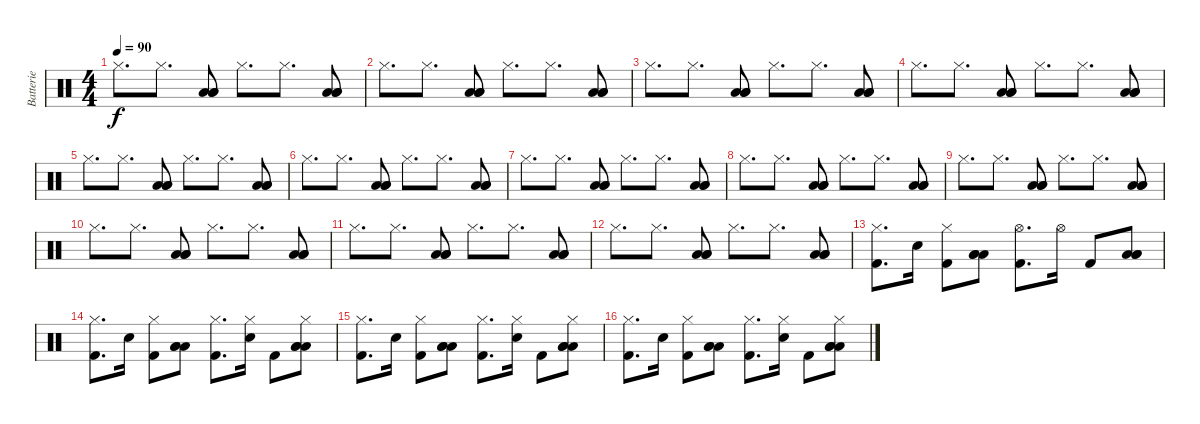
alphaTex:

\track ("Batterie" "Batterie") {instrument percussion}
\staff {score}
\articulation defaults
\ts (4 4)
\tempo 90
\clef neutral
\ks c "Hi-Hat (closed)".8{d dy f} "Hi-Hat (closed)".8{d}
("Low Tom (hit)" "Low Tom (hit)" "Low Tom (hit)").8 "Hi-Hat (closed)".8{d} "Hi-Hat (closed)".8{d} ("Low Tom (hit)" "Low Tom (hit)" "Low Tom (hit)").8 |
"Hi-Hat (closed)".8{d} "Hi-Hat (closed)".8{d} ("Low Tom (hit)" "Low Tom (hit)" "Low Tom (hit)").8 "Hi-Hat (closed)".8{d} "Hi-Hat (closed)".8{d} ("Low Tom (hit)" "Low Tom (hit)" "Low Tom (hit)").8 |
"Hi-Hat (closed)".8{d} "Hi-Hat (closed)".8{d} ("Low Tom (hit)" "Low Tom (hit)" "Low Tom (hit)").8 "Hi-Hat (closed)".8{d} "Hi-Hat (closed)".8{d} ("Low Tom (hit)" "Low Tom (hit)" "Low Tom (hit)").8 |
"Hi-Hat (closed)".8{d} "Hi-Hat (closed)".8{d} ("Low Tom (hit)" "Low Tom (hit)" "Low Tom (hit)").8 "Hi-Hat (closed)".8{d} "Hi-Hat (closed)".8{d} ("Low Tom (hit)" "Low Tom (hit)" "Low Tom (hit)").8 |
"Hi-Hat (closed)".8{d} "Hi-Hat (closed)".8{d} ("Low Tom (hit)" "Low Tom (hit)" "Low Tom (hit)").8 "Hi-Hat (closed)".8{d} "Hi-Hat (closed)".8{d} ("Low Tom (hit)" "Low Tom (hit)" "Low Tom (hit)").8 |
"Hi-Hat (closed)".8{d} "Hi-Hat (closed)".8{d} ("Low Tom (hit)" "Low Tom (hit)" "Low Tom (hit)").8 "Hi-Hat (closed)".8{d} "Hi-Hat (closed)".8{d} ("Low Tom (hit)" "Low Tom (hit)" "Low Tom (hit)").8 |
"Hi-Hat (closed)".8{d} "Hi-Hat (closed)".8{d} ("Low Tom (hit)" "Low Tom (hit)" "Low Tom (hit)").8 "Hi-Hat (closed)".8{d} "Hi-Hat (closed)".8{d} ("Low Tom (hit)" "Low Tom (hit)" "Low Tom (hit)").8 |
"Hi-Hat (closed)".8{d} "Hi-Hat (closed)".8{d} ("Low Tom (hit)" "Low Tom (hit)" "Low Tom (hit)").8 "Hi-Hat (closed)".8{d} "Hi-Hat (closed)".8{d} ("Low Tom (hit)" "Low Tom (hit)" "Low Tom (hit)").8 |
"Hi-Hat (closed)".8{d} "Hi-Hat (closed)".8{d} ("Low Tom (hit)" "Low Tom (hit)" "Low Tom (hit)").8 "Hi-Hat (closed)".8{d} "Hi-Hat (closed)".8{d} ("Low Tom (hit)" "Low Tom (hit)" "Low Tom (hit)").8 |
"Hi-Hat (closed)".8{d} "Hi-Hat (closed)".8{d} ("Low Tom (hit)" "Low Tom (hit)" "Low Tom (hit)").8 "Hi-Hat (closed)".8{d} "Hi-Hat (closed)".8{d} ("Low Tom (hit)" "Low Tom (hit)" "Low Tom (hit)").8 |
"Hi-Hat (closed)".8{d} "Hi-Hat (closed)".8{d} ("Low Tom (hit)" "Low Tom (hit)" "Low Tom (hit)").8 "Hi-Hat (closed)".8{d} "Hi-Hat (closed)".8{d} ("Low Tom (hit)" "Low Tom (hit)" "Low Tom (hit)").8 |
"Hi-Hat (closed)".8{d} "Hi-Hat (closed)".8{d} ("Low Tom (hit)" "Low Tom (hit)" "Low Tom (hit)").8 "Hi-Hat (closed)".8{d} "Hi-Hat (closed)".8{d} ("Low Tom (hit)" "Low Tom (hit)" "Low Tom (hit)").8 |
("Kick (hit) 2" "Hi-Hat (closed)").8{d} "Electric Snare (hit)".16 ("Kick (hit) 2" "Hi-Hat (closed)").8 ("Low Tom (hit)" "Low Tom (hit)" "Low Tom (hit)").8 ("Kick (hit) 2" "Hi-Hat (open)").8{d} "Hi-Hat (open)".16 "Kick (hit) 2".8 ("Low Tom (hit)" "Low Tom (hit)" "Low Tom (hit)").8 |
("Kick (hit) 2" "Hi-Hat (closed)").8{d} "Electric Snare (hit)".16 ("Kick (hit) 2" "Hi-Hat (closed)").8 ("Low Tom (hit)" "Low Tom (hit)" "Low Tom (hit)").8 ("Kick (hit) 2" "Hi-Hat (closed)").8{d} ("Electric Snare (hit)" "Hi-Hat (closed)").16 "Kick (hit) 2".8 ("Low Tom (hit)" "Low Tom (hit)" "Low Tom (hit)" "Hi-Hat (closed)").8 |
("Kick (hit) 2" "Hi-Hat (closed)").8{d} "Electric Snare (hit)".16 ("Kick (hit) 2" "Hi-Hat (closed)").8 ("Low Tom (hit)" "Low Tom (hit)" "Low Tom (hit)").8 ("Kick (hit) 2" "Hi-Hat (closed)").8{d} ("Electric Snare (hit)" "Hi-Hat (closed)").16 "Kick (hit) 2".8 ("Low Tom (hit)" "Low Tom (hit)" "Low Tom (hit)" "Hi-Hat (closed)").8 |
("Kick (hit) 2" "Hi-Hat (closed)").8{d} "Electric Snare (hit)".16 ("Kick (hit) 2" "Hi-Hat (closed)").8 ("Low Tom (hit)" "Low Tom (hit)" "Low Tom (hit)").8 ("Kick (hit) 2" "Hi-Hat (closed)").8{d} ("Electric Snare (hit)" "Hi-Hat (closed)").16 "Kick (hit) 2".8 ("Low Tom (hit)" "Low Tom (hit)" "Low Tom (hit)" "Hi-Hat (closed)").8
